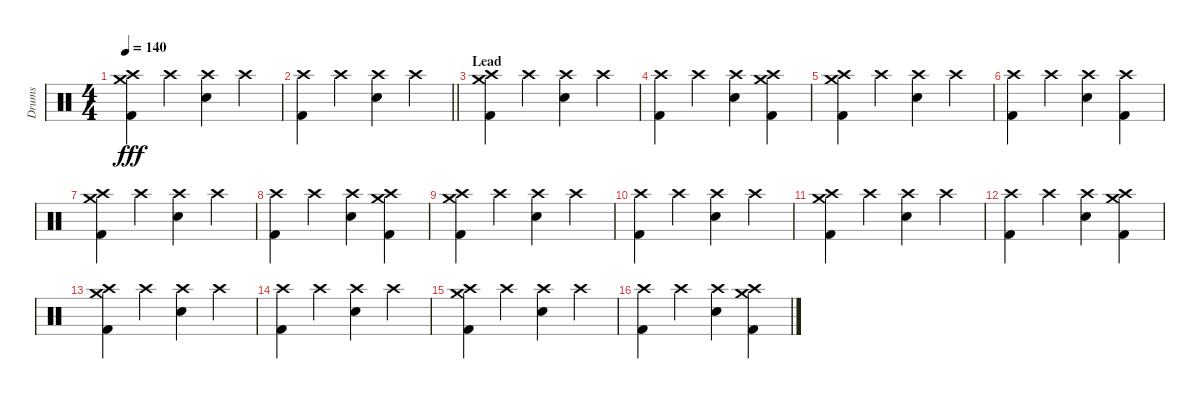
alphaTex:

\track ("Drums" "Drums") {instrument percussion}
\staff {score}
\articulation defaults
\ts (4 4)
\tempo 140
\clef neutral
\ks c
("Crash high (hit)" "Crash medium (hit)" "Kick (hit) 2").4{dy fff} "Crash high (hit)".4 ("Crash high (hit)" "Electric Snare (hit)").4 "Crash high (hit)".4 |
\barLineRight lightlight
("Crash high (hit)" "Kick (hit) 2").4 "Crash high (hit)".4 ("Crash high (hit)" "Electric Snare (hit)").4 "Crash high (hit)".4 |
\section ("" "Lead")
("Crash high (hit)" "Crash medium (hit)" "Kick (hit) 2").4 "Crash high (hit)".4 ("Crash high (hit)" "Electric Snare (hit)").4 "Crash high (hit)".4 |
("Crash high (hit)" "Kick (hit) 2").4 "Crash high (hit)".4 ("Crash high (hit)" "Electric Snare (hit)").4 ("Crash high (hit)" "Crash medium (hit)" "Kick (hit) 2").4 |
("Crash high (hit)" "Crash medium (hit)" "Kick (hit) 2").4 "Crash high (hit)".4 ("Crash high (hit)" "Electric Snare (hit)").4 "Crash high (hit)".4 |
("Crash high (hit)" "Kick (hit) 2").4 "Crash high (hit)".4 ("Crash high (hit)" "Electric Snare (hit)").4 ("Crash high (hit)" "Kick (hit) 2").4 |
("Crash high (hit)" "Crash medium (hit)" "Kick (hit) 2").4 "Crash high (hit)".4 ("Crash high (hit)" "Electric Snare (hit)").4 "Crash high (hit)".4 |
("Crash high (hit)" "Kick (hit) 2").4 "Crash high (hit)".4 ("Crash high (hit)" "Electric Snare (hit)").4 ("Crash high (hit)" "Crash medium (hit)" "Kick (hit) 2").4 |
("Crash high (hit)" "Crash medium (hit)" "Kick (hit) 2").4 "Crash high (hit)".4 ("Crash high (hit)" "Electric Snare (hit)").4 "Crash high (hit)".4 |
("Crash high (hit)" "Kick (hit) 2").4 "Crash high (hit)".4 ("Crash high (hit)" "Electric Snare (hit)").4 "Crash high (hit)".4 |
("Crash high (hit)" "Crash medium (hit)" "Kick (hit) 2").4 "Crash high (hit)".4 ("Crash high (hit)" "Electric Snare (hit)").4 "Crash high (hit)".4 |
("Crash high (hit)" "Kick (hit) 2").4 "Crash high (hit)".4 ("Crash high (hit)" "Electric Snare (hit)").4 ("Crash high (hit)" "Crash medium (hit)" "Kick (hit) 2").4 |
("Crash high (hit)" "Crash medium (hit)" "Kick (hit) 2").4 "Crash high (hit)".4 ("Crash high (hit)" "Electric Snare (hit)").4 "Crash high (hit)".4 |
("Crash high (hit)" "Kick (hit) 2").4 "Crash high (hit)".4 ("Crash high (hit)" "Electric Snare (hit)").4 "Crash high (hit)".4 |
("Crash high (hit)" "Crash medium (hit)" "Kick (hit) 2").4 "Crash high (hit)".4 ("Crash high (hit)" "Electric Snare (hit)").4 "Crash high (hit)".4 |
("Crash high (hit)" "Kick (hit) 2").4 "Crash high (hit)".4 ("Crash high (hit)" "Electric Snare (hit)").4 ("Crash high (hit)" "Crash medium (hit)" "Kick (hit) 2").4
